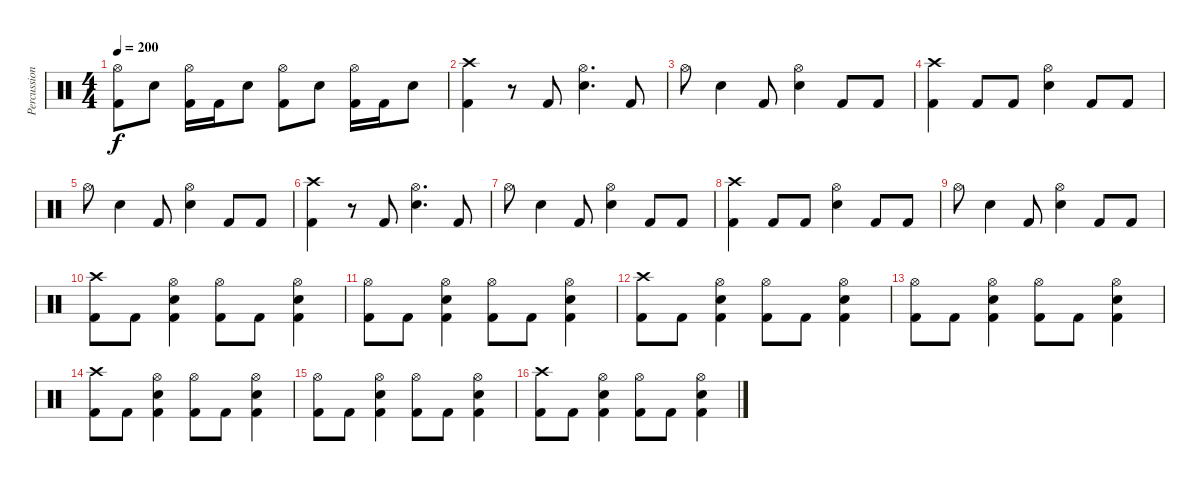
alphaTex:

\track ("Percussion" "Percussion") {instrument percussion}
\staff {score}
\articulation defaults
\ts (4 4)
\tempo 200
\clef neutral
\ks c
("Hi-Hat (open)" "Kick (hit) 2").8{dy f} "Snare (hit) 2".8 ("Hi-Hat (open)" "Kick (hit) 2").16 "Kick (hit) 2".16 "Snare (hit) 2".8 ("Hi-Hat (open)" "Kick (hit) 2").8 "Snare (hit) 2".8 ("Hi-Hat (open)" "Kick (hit) 2").16 "Kick (hit) 2".16 "Snare (hit) 2".8 |
("Crash high (hit)" "Kick (hit) 2").4 r.8 "Kick (hit) 2".8 ("Hi-Hat (open)" "Snare (hit) 2").4{d} "Kick (hit) 2".8 |
"Hi-Hat (open)".8 "Snare (hit) 2".4 "Kick (hit) 2".8 ("Hi-Hat (open)" "Snare (hit) 2").4 "Kick (hit) 2".8 "Kick (hit) 2".8 |
("Crash high (hit)" "Kick (hit) 2").4 "Kick (hit) 2".8 "Kick (hit) 2".8 ("Hi-Hat (open)" "Snare (hit) 2").4 "Kick (hit) 2".8 "Kick (hit) 2".8 |
"Hi-Hat (open)".8 "Snare (hit) 2".4 "Kick (hit) 2".8 ("Hi-Hat (open)" "Snare (hit) 2").4 "Kick (hit) 2".8 "Kick (hit) 2".8 |
("Crash high (hit)" "Kick (hit) 2").4 r.8 "Kick (hit) 2".8 ("Hi-Hat (open)" "Snare (hit) 2").4{d} "Kick (hit) 2".8 |
"Hi-Hat (open)".8 "Snare (hit) 2".4 "Kick (hit) 2".8 ("Hi-Hat (open)" "Snare (hit) 2").4 "Kick (hit) 2".8 "Kick (hit) 2".8 |
("Crash high (hit)" "Kick (hit) 2").4 "Kick (hit) 2".8 "Kick (hit) 2".8 ("Hi-Hat (open)" "Snare (hit) 2").4 "Kick (hit) 2".8 "Kick (hit) 2".8 |
"Hi-Hat (open)".8 "Snare (hit) 2".4 "Kick (hit) 2".8 ("Hi-Hat (open)" "Snare (hit) 2").4 "Kick (hit) 2".8 "Kick (hit) 2".8 |
("Crash high (hit)" "Kick (hit) 2").8 "Kick (hit) 2".8 ("Hi-Hat (open)" "Snare (hit) 2" "Kick (hit) 2").4 ("Hi-Hat (open)" "Kick (hit) 2").8 "Kick (hit) 2".8 ("Hi-Hat (open)" "Snare (hit) 2" "Kick (hit) 2").4 |
("Hi-Hat (open)" "Kick (hit) 2").8 "Kick (hit) 2".8 ("Hi-Hat (open)" "Snare (hit) 2" "Kick (hit) 2").4 ("Hi-Hat (open)" "Kick (hit) 2").8 "Kick (hit) 2".8 ("Hi-Hat (open)" "Snare (hit) 2" "Kick (hit) 2").4 |
("Crash high (hit)" "Kick (hit) 2").8 "Kick (hit) 2".8 ("Hi-Hat (open)" "Snare (hit) 2" "Kick (hit) 2").4 ("Hi-Hat (open)" "Kick (hit) 2").8 "Kick (hit) 2".8 ("Hi-Hat (open)" "Snare (hit) 2" "Kick (hit) 2").4 |
("Hi-Hat (open)" "Kick (hit) 2").8 "Kick (hit) 2".8 ("Hi-Hat (open)" "Snare (hit) 2" "Kick (hit) 2").4 ("Hi-Hat (open)" "Kick (hit) 2").8 "Kick (hit) 2".8 ("Hi-Hat (open)" "Snare (hit) 2" "Kick (hit) 2").4 |
("Crash high (hit)" "Kick (hit) 2").8 "Kick (hit) 2".8 ("Hi-Hat (open)" "Snare (hit) 2" "Kick (hit) 2").4 ("Hi-Hat (open)" "Kick (hit) 2").8 "Kick (hit) 2".8 ("Hi-Hat (open)" "Snare (hit) 2" "Kick (hit) 2").4 |
("Hi-Hat (open)" "Kick (hit) 2").8 "Kick (hit) 2".8 ("Hi-Hat (open)" "Snare (hit) 2" "Kick (hit) 2").4 ("Hi-Hat (open)" "Kick (hit) 2").8 "Kick (hit) 2".8 ("Hi-Hat (open)" "Snare (hit) 2" "Kick (hit) 2").4 |
("Crash high (hit)" "Kick (hit) 2").8 "Kick (hit) 2".8 ("Hi-Hat (open)" "Snare (hit) 2" "Kick (hit) 2").4 ("Hi-Hat (open)" "Kick (hit) 2").8 "Kick (hit) 2".8 ("Hi-Hat (open)" "Snare (hit) 2" "Kick (hit) 2").4
